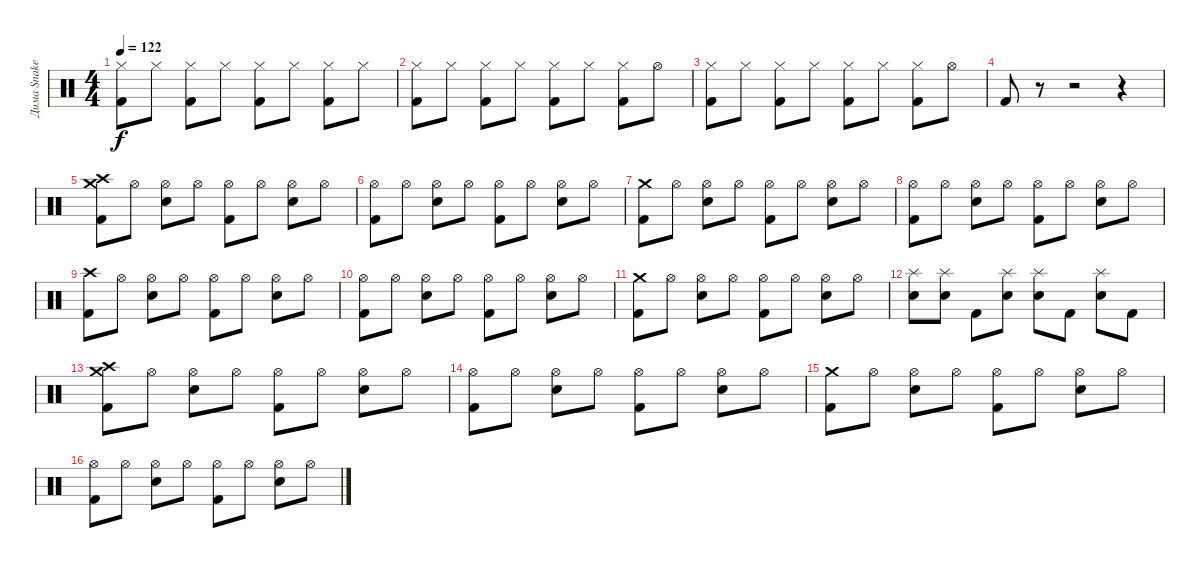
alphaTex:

\track ("Дима Snake Хакимов" "Дима Snake") {instrument percussion}
\staff {score}
\articulation defaults
\ts (4 4)
\tempo 122
\clef neutral
\ks c
("Hi-Hat (closed)" "Kick (hit) 2").8{dy f} "Hi-Hat (closed)".8 ("Hi-Hat (closed)" "Kick (hit) 2").8 "Hi-Hat (closed)".8 ("Hi-Hat (closed)" "Kick (hit) 2").8 "Hi-Hat (closed)".8 ("Hi-Hat (closed)" "Kick (hit) 2").8 "Hi-Hat (closed)".8 |
("Hi-Hat (closed)" "Kick (hit) 2").8 "Hi-Hat (closed)".8 ("Hi-Hat (closed)" "Kick (hit) 2").8 "Hi-Hat (closed)".8 ("Hi-Hat (closed)" "Kick (hit) 2").8 "Hi-Hat (closed)".8 ("Hi-Hat (closed)" "Kick (hit) 2").8 "Hi-Hat (open)".8 |
("Hi-Hat (closed)" "Kick (hit) 2").8 "Hi-Hat (closed)".8 ("Hi-Hat (closed)" "Kick (hit) 2").8 "Hi-Hat (closed)".8 ("Hi-Hat (closed)" "Kick (hit) 2").8 "Hi-Hat (closed)".8 ("Hi-Hat (closed)" "Kick (hit) 2").8 "Hi-Hat (open)".8 |
"Kick (hit) 2".8 r.8 r.2 r.4 |
("Crash high (hit)" "Crash medium (hit)" "Kick (hit) 2").8 "Hi-Hat (open)".8 ("Hi-Hat (open)" "Snare (hit) 2").8 "Hi-Hat (open)".8 ("Hi-Hat (open)" "Kick (hit) 2").8 "Hi-Hat (open)".8 ("Hi-Hat (open)" "Snare (hit) 2").8 "Hi-Hat (open)".8 |
("Hi-Hat (open)" "Kick (hit) 2").8 "Hi-Hat (open)".8 ("Hi-Hat (open)" "Snare (hit) 2").8 "Hi-Hat (open)".8 ("Hi-Hat (open)" "Kick (hit) 2").8 "Hi-Hat (open)".8 ("Hi-Hat (open)" "Snare (hit) 2").8 "Hi-Hat (open)".8 |
("Crash medium (hit)" "Kick (hit) 2").8 "Hi-Hat (open)".8 ("Hi-Hat (open)" "Snare (hit) 2").8 "Hi-Hat (open)".8 ("Hi-Hat (open)" "Kick (hit) 2").8 "Hi-Hat (open)".8 ("Hi-Hat (open)" "Snare (hit) 2").8 "Hi-Hat (open)".8 |
("Hi-Hat (open)" "Kick (hit) 2").8 "Hi-Hat (open)".8 ("Hi-Hat (open)" "Snare (hit) 2").8 "Hi-Hat (open)".8 ("Hi-Hat (open)" "Kick (hit) 2").8 "Hi-Hat (open)".8 ("Hi-Hat (open)" "Snare (hit) 2").8 "Hi-Hat (open)".8 |
("Crash high (hit)" "Kick (hit) 2").8 "Hi-Hat (open)".8 ("Hi-Hat (open)" "Snare (hit) 2").8 "Hi-Hat (open)".8 ("Hi-Hat (open)" "Kick (hit) 2").8 "Hi-Hat (open)".8 ("Hi-Hat (open)" "Snare (hit) 2").8 "Hi-Hat (open)".8 |
("Hi-Hat (open)" "Kick (hit) 2").8 "Hi-Hat (open)".8 ("Hi-Hat (open)" "Snare (hit) 2").8 "Hi-Hat (open)".8 ("Hi-Hat (open)" "Kick (hit) 2").8 "Hi-Hat (open)".8 ("Hi-Hat (open)" "Snare (hit) 2").8 "Hi-Hat (open)".8 |
("Crash medium (hit)" "Kick (hit) 2").8 "Hi-Hat (open)".8 ("Hi-Hat (open)" "Snare (hit) 2").8 "Hi-Hat (open)".8 ("Hi-Hat (open)" "Kick (hit) 2").8 "Hi-Hat (open)".8 ("Hi-Hat (open)" "Snare (hit) 2").8 "Hi-Hat (open)".8 |
("Splash (hit)" "Snare (hit) 2").8 ("Splash (hit)" "Snare (hit) 2").8 "Kick (hit) 2".8 ("Splash (hit)" "Snare (hit) 2").8 ("Splash (hit)" "Snare (hit) 2").8 "Kick (hit) 2".8 ("Splash (hit)" "Snare (hit) 2").8 "Kick (hit) 2".8 |
("Crash high (hit)" "Crash medium (hit)" "Kick (hit) 2").8 "Hi-Hat (open)".8 ("Hi-Hat (open)" "Snare (hit) 2").8 "Hi-Hat (open)".8 ("Hi-Hat (open)" "Kick (hit) 2").8 "Hi-Hat (open)".8 ("Hi-Hat (open)" "Snare (hit) 2").8 "Hi-Hat (open)".8 |
("Hi-Hat (open)" "Kick (hit) 2").8 "Hi-Hat (open)".8 ("Hi-Hat (open)" "Snare (hit) 2").8 "Hi-Hat (open)".8 ("Hi-Hat (open)" "Kick (hit) 2").8 "Hi-Hat (open)".8 ("Hi-Hat (open)" "Snare (hit) 2").8 "Hi-Hat (open)".8 |
("Crash medium (hit)" "Kick (hit) 2").8 "Hi-Hat (open)".8 ("Hi-Hat (open)" "Snare (hit) 2").8 "Hi-Hat (open)".8 ("Hi-Hat (open)" "Kick (hit) 2").8 "Hi-Hat (open)".8 ("Hi-Hat (open)" "Snare (hit) 2").8 "Hi-Hat (open)".8 |
("Hi-Hat (open)" "Kick (hit) 2").8 "Hi-Hat (open)".8 ("Hi-Hat (open)" "Snare (hit) 2").8 "Hi-Hat (open)".8 ("Hi-Hat (open)" "Kick (hit) 2").8 "Hi-Hat (open)".8 ("Hi-Hat (open)" "Snare (hit) 2").8 "Hi-Hat (open)".8
